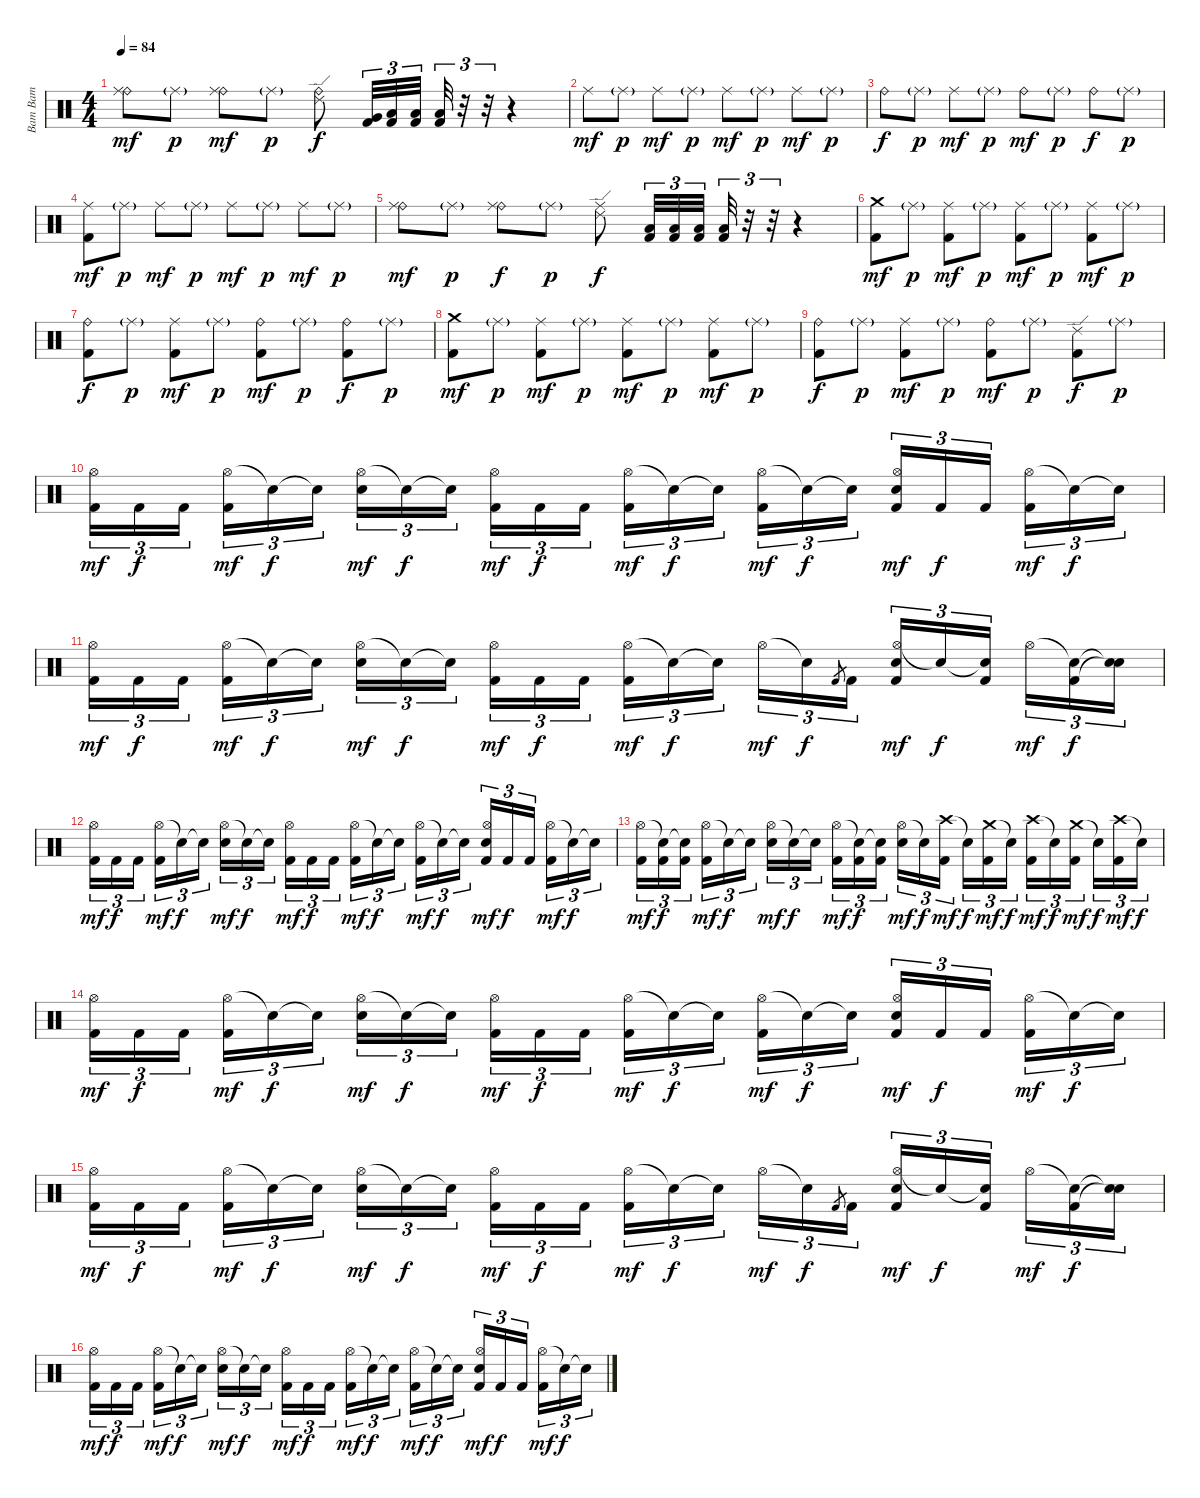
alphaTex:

\track ("Bam Bam" "Bam Bam") {instrument percussion}
\staff {score}
\articulation defaults
\ts (4 4)
\tempo 84
\clef neutral
\ks c
("Ride (bell)" "Ride (middle)").8{dy mf} "Ride (middle)"{g}.8{dy p} ("Ride (bell)" "Ride (middle)").8{dy mf} "Ride (middle)"{g}.8{dy p} ("Ride (bell)" "Ride (edge) 2").8{dy f} ("Very Low Tom (hit)" "Kick (hit) 2").32{tu (3 2)} ("Low Floor Tom (hit)" "Kick (hit) 2").32{tu (3 2)} ("Low Floor Tom (hit)" "Kick (hit) 2").32{tu (3 2) beam splitsecondary} ("Low Floor Tom (hit)" "Kick (hit) 2").32{tu (3 2)} r.32{tu (3 2)} r.32{tu (3 2)} r.4 |
"Ride (middle)".8{dy mf} "Ride (middle)"{g}.8{dy p} "Ride (middle)".8{dy mf} "Ride (middle)"{g}.8{dy p} "Ride (middle)".8{dy mf} "Ride (middle)"{g}.8{dy p} "Ride (middle)".8{dy mf} "Ride (middle)"{g}.8{dy p} |
"Ride (bell)".8{dy f} "Ride (middle)"{g}.8{dy p} "Ride (middle)".8{dy mf} "Ride (middle)"{g}.8{dy p} "Ride (bell)".8{dy mf} "Ride (middle)"{g}.8{dy p} "Ride (bell)".8{dy f} "Ride (middle)"{g}.8{dy p} |
("Ride (middle)" "Kick (hit) 2").8{dy mf} "Ride (middle)"{g}.8{dy p} "Ride (middle)".8{dy mf} "Ride (middle)"{g}.8{dy p} "Ride (middle)".8{dy mf} "Ride (middle)"{g}.8{dy p} "Ride (middle)".8{dy mf} "Ride (middle)"{g}.8{dy p} |
("Ride (bell)" "Ride (middle)").8{dy mf} "Ride (middle)"{g}.8{dy p} ("Ride (bell)" "Ride (middle)").8{dy f} "Ride (middle)"{g}.8{dy p} ("Ride (middle)" "Ride (edge) 2").8{dy f} ("Low Floor Tom (hit)" "Kick (hit) 2").32{tu (3 2)} ("Low Floor Tom (hit)" "Kick (hit) 2").32{tu (3 2)} ("Low Floor Tom (hit)" "Kick (hit) 2").32{tu (3 2) beam splitsecondary} ("Low Floor Tom (hit)" "Kick (hit) 2").32{tu (3 2)} r.32{tu (3 2)} r.32{tu (3 2)} r.4 |
("Crash medium (hit)" "Kick (hit) 2").8{dy mf} "Ride (middle)"{g}.8{dy p} ("Ride (middle)" "Kick (hit) 2").8{dy mf} "Ride (middle)"{g}.8{dy p} ("Ride (middle)" "Kick (hit) 2").8{dy mf} "Ride (middle)"{g}.8{dy p} ("Ride (middle)" "Kick (hit) 2").8{dy mf} "Ride (middle)"{g}.8{dy p} |
("Ride (bell)" "Kick (hit) 2").8{dy f} "Ride (middle)"{g}.8{dy p} ("Ride (middle)" "Kick (hit) 2").8{dy mf} "Ride (middle)"{g}.8{dy p} ("Ride (bell)" "Kick (hit) 2").8{dy mf} "Ride (middle)"{g}.8{dy p} ("Ride (bell)" "Kick (hit) 2").8{dy f} "Ride (middle)"{g}.8{dy p} |
("Crash medium (hit)" "Kick (hit) 2").8{dy mf} "Ride (middle)"{g}.8{dy p} ("Ride (middle)" "Kick (hit) 2").8{dy mf} "Ride (middle)"{g}.8{dy p} ("Ride (middle)" "Kick (hit) 2").8{dy mf} "Ride (middle)"{g}.8{dy p} ("Ride (middle)" "Kick (hit) 2").8{dy mf} "Ride (middle)"{g}.8{dy p} |
("Ride (bell)" "Kick (hit) 2").8{dy f} "Ride (middle)"{g}.8{dy p} ("Ride (middle)" "Kick (hit) 2").8{dy mf} "Ride (middle)"{g}.8{dy p} ("Ride (bell)" "Kick (hit) 2").8{dy mf} "Ride (middle)"{g}.8{dy p} ("Ride (edge) 2" "Kick (hit) 2").8{dy f} "Ride (middle)"{g}.8{dy p} |
("Hi-Hat (open)" "Kick (hit) 2").16{tu (3 2) dy mf} "Kick (hit) 2".16{tu (3 2) dy f} "Kick (hit) 2".16{tu (3 2) beam splitsecondary} ("Hi-Hat (open)" "Kick (hit) 2").16{tu (3 2) dy mf} "Snare (hit)"{t}.16{tu (3 2) dy f} "Snare (hit)"{t}.16{tu (3 2)} ("Hi-Hat (open)" "Electric Snare (hit)").16{tu (3 2) dy mf} "Snare (hit)"{t}.16{tu (3 2) dy f} "Snare (hit)"{t}.16{tu (3 2) beam splitsecondary} ("Hi-Hat (open)" "Kick (hit) 2").16{tu (3 2) dy mf} "Kick (hit) 2".16{tu (3 2) dy f} "Kick (hit) 2".16{tu (3 2)} ("Hi-Hat (open)" "Kick (hit) 2").16{tu (3 2) dy mf} "Snare (hit)"{t}.16{tu (3 2) dy f} "Snare (hit)"{t}.16{tu (3 2) beam splitsecondary} ("Hi-Hat (open)" "Kick (hit) 2").16{tu (3 2) dy mf} "Snare (hit)"{t}.16{tu (3 2) dy f} "Snare (hit)"{t}.16{tu (3 2)} ("Hi-Hat (open)" "Electric Snare (hit)" "Kick (hit) 2").16{tu (3 2) dy mf} "Kick (hit) 2".16{tu (3 2) dy f} "Kick (hit) 2".16{tu (3 2) beam splitsecondary} ("Hi-Hat (open)" "Kick (hit) 2").16{tu (3 2) dy mf} "Snare (hit)"{t}.16{tu (3 2) dy f} "Snare (hit)"{t}.16{tu (3 2)} |
("Hi-Hat (open)" "Kick (hit) 2").16{tu (3 2) dy mf} "Kick (hit) 2".16{tu (3 2) dy f} "Kick (hit) 2".16{tu (3 2) beam splitsecondary} ("Hi-Hat (open)" "Kick (hit) 2").16{tu (3 2) dy mf} "Snare (hit)"{t}.16{tu (3 2) dy f} "Snare (hit)"{t}.16{tu (3 2)} ("Hi-Hat (open)" "Electric Snare (hit)").16{tu (3 2) dy mf} "Snare (hit)"{t}.16{tu (3 2) dy f} "Snare (hit)"{t}.16{tu (3 2) beam splitsecondary} ("Hi-Hat (open)" "Kick (hit) 2").16{tu (3 2) dy mf} "Kick (hit) 2".16{tu (3 2) dy f} "Kick (hit) 2".16{tu (3 2)} ("Hi-Hat (open)" "Kick (hit) 2").16{tu (3 2) dy mf} "Snare (hit)"{t}.16{tu (3 2) dy f} "Snare (hit)"{t}.16{tu (3 2) beam splitsecondary} "Hi-Hat (open)".16{tu (3 2) dy mf} "Snare (hit)"{t}.16{tu (3 2) dy f} "Kick (hit) 2".8{gr} "Kick (hit) 2".16{tu (3 2)} ("Hi-Hat (open)" "Electric Snare (hit)" "Kick (hit) 2").16{tu (3 2) dy mf} "Snare (hit)"{t}.16{tu (3 2) dy f} ("Snare (hit)"{t} "Kick (hit) 2").16{tu (3 2) beam splitsecondary} "Hi-Hat (open)".16{tu (3 2) dy mf} ("Snare (hit)"{t} "Kick (hit) 2").16{tu (3 2) dy f} ("Snare (hit)"{t} "Snare (hit)"{t}).16{tu (3 2)} |
("Hi-Hat (open)" "Kick (hit) 2").16{tu (3 2) dy mf} "Kick (hit) 2".16{tu (3 2) dy f} "Kick (hit) 2".16{tu (3 2) beam splitsecondary} ("Hi-Hat (open)" "Kick (hit) 2").16{tu (3 2) dy mf} "Snare (hit)"{t}.16{tu (3 2) dy f} "Snare (hit)"{t}.16{tu (3 2)} ("Hi-Hat (open)" "Electric Snare (hit)").16{tu (3 2) dy mf} "Snare (hit)"{t}.16{tu (3 2) dy f} "Snare (hit)"{t}.16{tu (3 2) beam splitsecondary} ("Hi-Hat (open)" "Kick (hit) 2").16{tu (3 2) dy mf} "Kick (hit) 2".16{tu (3 2) dy f} "Kick (hit) 2".16{tu (3 2)} ("Hi-Hat (open)" "Kick (hit) 2").16{tu (3 2) dy mf} "Snare (hit)"{t}.16{tu (3 2) dy f} "Snare (hit)"{t}.16{tu (3 2) beam splitsecondary} ("Hi-Hat (open)" "Kick (hit) 2").16{tu (3 2) dy mf} "Snare (hit)"{t}.16{tu (3 2) dy f} "Snare (hit)"{t}.16{tu (3 2)} ("Hi-Hat (open)" "Electric Snare (hit)" "Kick (hit) 2").16{tu (3 2) dy mf} "Kick (hit) 2".16{tu (3 2) dy f} "Kick (hit) 2".16{tu (3 2) beam splitsecondary} ("Hi-Hat (open)" "Kick (hit) 2").16{tu (3 2) dy mf} "Snare (hit)"{t}.16{tu (3 2) dy f} "Snare (hit)"{t}.16{tu (3 2)} |
("Hi-Hat (open)" "Kick (hit) 2").16{tu (3 2) dy mf} ("Snare (hit)"{t} "Kick (hit) 2").16{tu (3 2) dy f} ("Snare (hit)"{t} "Kick (hit) 2").16{tu (3 2) beam splitsecondary} ("Hi-Hat (open)" "Kick (hit) 2").16{tu (3 2) dy mf} "Snare (hit)"{t}.16{tu (3 2) dy f} "Snare (hit)"{t}.16{tu (3 2)} ("Hi-Hat (open)" "Electric Snare (hit)").16{tu (3 2) dy mf} "Snare (hit)"{t}.16{tu (3 2) dy f} "Snare (hit)"{t}.16{tu (3 2) beam splitsecondary} ("Hi-Hat (open)" "Kick (hit) 2").16{tu (3 2) dy mf} ("Snare (hit)"{t} "Kick (hit) 2").16{tu (3 2) dy f} ("Snare (hit)"{t} "Kick (hit) 2").16{tu (3 2)} ("Hi-Hat (open)" "Electric Snare (hit)").16{tu (3 2) dy mf} "Snare (hit)"{t}.16{tu (3 2) dy f} ("Crash high (hit)" "Kick (hit) 2").16{tu (3 2) dy mf beam splitsecondary} "Snare (hit)"{t}.16{tu (3 2) dy f} ("Crash medium (hit)" "Kick (hit) 2").16{tu (3 2) dy mf} "Snare (hit)"{t}.16{tu (3 2) dy f} ("Crash high (hit)" "Kick (hit) 2").16{tu (3 2) dy mf} "Snare (hit)"{t}.16{tu (3 2) dy f} ("Crash medium (hit)" "Kick (hit) 2").16{tu (3 2) dy mf beam splitsecondary} "Snare (hit)"{t}.16{tu (3 2) dy f} ("Crash high (hit)" "Kick (hit) 2").16{tu (3 2) dy mf} "Snare (hit)"{t}.16{tu (3 2) dy f} |
("Hi-Hat (open)" "Kick (hit) 2").16{tu (3 2) dy mf} "Kick (hit) 2".16{tu (3 2) dy f} "Kick (hit) 2".16{tu (3 2) beam splitsecondary} ("Hi-Hat (open)" "Kick (hit) 2").16{tu (3 2) dy mf} "Snare (hit)"{t}.16{tu (3 2) dy f} "Snare (hit)"{t}.16{tu (3 2)} ("Hi-Hat (open)" "Electric Snare (hit)").16{tu (3 2) dy mf} "Snare (hit)"{t}.16{tu (3 2) dy f} "Snare (hit)"{t}.16{tu (3 2) beam splitsecondary} ("Hi-Hat (open)" "Kick (hit) 2").16{tu (3 2) dy mf} "Kick (hit) 2".16{tu (3 2) dy f} "Kick (hit) 2".16{tu (3 2)} ("Hi-Hat (open)" "Kick (hit) 2").16{tu (3 2) dy mf} "Snare (hit)"{t}.16{tu (3 2) dy f} "Snare (hit)"{t}.16{tu (3 2) beam splitsecondary} ("Hi-Hat (open)" "Kick (hit) 2").16{tu (3 2) dy mf} "Snare (hit)"{t}.16{tu (3 2) dy f} "Snare (hit)"{t}.16{tu (3 2)} ("Hi-Hat (open)" "Electric Snare (hit)" "Kick (hit) 2").16{tu (3 2) dy mf} "Kick (hit) 2".16{tu (3 2) dy f} "Kick (hit) 2".16{tu (3 2) beam splitsecondary} ("Hi-Hat (open)" "Kick (hit) 2").16{tu (3 2) dy mf} "Snare (hit)"{t}.16{tu (3 2) dy f} "Snare (hit)"{t}.16{tu (3 2)} |
("Hi-Hat (open)" "Kick (hit) 2").16{tu (3 2) dy mf} "Kick (hit) 2".16{tu (3 2) dy f} "Kick (hit) 2".16{tu (3 2) beam splitsecondary} ("Hi-Hat (open)" "Kick (hit) 2").16{tu (3 2) dy mf} "Snare (hit)"{t}.16{tu (3 2) dy f} "Snare (hit)"{t}.16{tu (3 2)} ("Hi-Hat (open)" "Electric Snare (hit)").16{tu (3 2) dy mf} "Snare (hit)"{t}.16{tu (3 2) dy f} "Snare (hit)"{t}.16{tu (3 2) beam splitsecondary} ("Hi-Hat (open)" "Kick (hit) 2").16{tu (3 2) dy mf} "Kick (hit) 2".16{tu (3 2) dy f} "Kick (hit) 2".16{tu (3 2)} ("Hi-Hat (open)" "Kick (hit) 2").16{tu (3 2) dy mf} "Snare (hit)"{t}.16{tu (3 2) dy f} "Snare (hit)"{t}.16{tu (3 2) beam splitsecondary} "Hi-Hat (open)".16{tu (3 2) dy mf} "Snare (hit)"{t}.16{tu (3 2) dy f} "Kick (hit) 2".8{gr} "Kick (hit) 2".16{tu (3 2)} ("Hi-Hat (open)" "Electric Snare (hit)" "Kick (hit) 2").16{tu (3 2) dy mf} "Snare (hit)"{t}.16{tu (3 2) dy f} ("Snare (hit)"{t} "Kick (hit) 2").16{tu (3 2) beam splitsecondary} "Hi-Hat (open)".16{tu (3 2) dy mf} ("Snare (hit)"{t} "Kick (hit) 2").16{tu (3 2) dy f} ("Snare (hit)"{t} "Snare (hit)"{t}).16{tu (3 2)} |
("Hi-Hat (open)" "Kick (hit) 2").16{tu (3 2) dy mf} "Kick (hit) 2".16{tu (3 2) dy f} "Kick (hit) 2".16{tu (3 2) beam splitsecondary} ("Hi-Hat (open)" "Kick (hit) 2").16{tu (3 2) dy mf} "Snare (hit)"{t}.16{tu (3 2) dy f} "Snare (hit)"{t}.16{tu (3 2)} ("Hi-Hat (open)" "Electric Snare (hit)").16{tu (3 2) dy mf} "Snare (hit)"{t}.16{tu (3 2) dy f} "Snare (hit)"{t}.16{tu (3 2) beam splitsecondary} ("Hi-Hat (open)" "Kick (hit) 2").16{tu (3 2) dy mf} "Kick (hit) 2".16{tu (3 2) dy f} "Kick (hit) 2".16{tu (3 2)} ("Hi-Hat (open)" "Kick (hit) 2").16{tu (3 2) dy mf} "Snare (hit)"{t}.16{tu (3 2) dy f} "Snare (hit)"{t}.16{tu (3 2) beam splitsecondary} ("Hi-Hat (open)" "Kick (hit) 2").16{tu (3 2) dy mf} "Snare (hit)"{t}.16{tu (3 2) dy f} "Snare (hit)"{t}.16{tu (3 2)} ("Hi-Hat (open)" "Electric Snare (hit)" "Kick (hit) 2").16{tu (3 2) dy mf} "Kick (hit) 2".16{tu (3 2) dy f} "Kick (hit) 2".16{tu (3 2) beam splitsecondary} ("Hi-Hat (open)" "Kick (hit) 2").16{tu (3 2) dy mf} "Snare (hit)"{t}.16{tu (3 2) dy f} "Snare (hit)"{t}.16{tu (3 2)}
